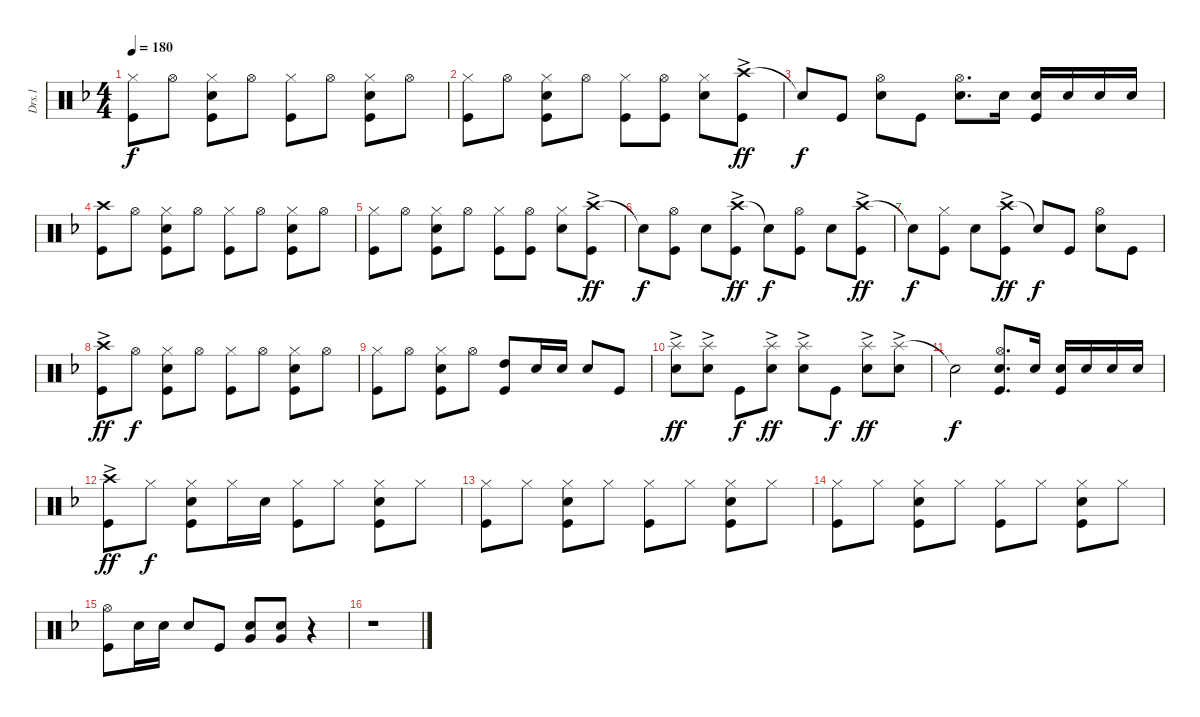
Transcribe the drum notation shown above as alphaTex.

\track ("Drs.1" "Drs.1") {instrument percussion}
\staff {score}
\articulation defaults
\ts (4 4)
\tempo 180
\clef neutral
\ks f
("Hi-Hat (closed)" "Kick (hit)").8{dy f} "Hi-Hat (open)".8 ("Hi-Hat (closed)" "Snare (hit) 2" "Kick (hit)").8 "Hi-Hat (open)".8 ("Hi-Hat (closed)" "Kick (hit)").8 "Hi-Hat (open)".8 ("Hi-Hat (closed)" "Snare (hit) 2" "Kick (hit)").8 "Hi-Hat (open)".8 |
("Hi-Hat (closed)" "Kick (hit)").8 "Hi-Hat (open)".8 ("Hi-Hat (closed)" "Snare (hit) 2" "Kick (hit)").8 "Hi-Hat (open)".8 ("Hi-Hat (closed)" "Kick (hit)").8 ("Hi-Hat (open)" "Kick (hit)").8 ("Hi-Hat (closed)" "Snare (hit) 2").8 ("Crash high (hit)"{ac} "Kick (hit)").8{dy ff} |
"Snare (hit)"{t}.8{dy f} "Kick (hit)".8 ("Hi-Hat (open)" "Snare (hit) 2").8 "Kick (hit)".8 ("Hi-Hat (open)" "Snare (hit) 2").8{d} "Snare (hit) 2".16 ("Snare (hit) 2" "Kick (hit)").16 "Snare (hit) 2".16 "Snare (hit) 2".16 "Snare (hit) 2".16 |
("Crash high (hit)" "Kick (hit)").8 "Hi-Hat (open)".8 ("Hi-Hat (closed)" "Snare (hit) 2" "Kick (hit)").8 "Hi-Hat (open)".8 ("Hi-Hat (closed)" "Kick (hit)").8 "Hi-Hat (open)".8 ("Hi-Hat (closed)" "Snare (hit) 2" "Kick (hit)").8 "Hi-Hat (open)".8 |
("Hi-Hat (closed)" "Kick (hit)").8 "Hi-Hat (open)".8 ("Hi-Hat (closed)" "Snare (hit) 2" "Kick (hit)").8 "Hi-Hat (open)".8 ("Hi-Hat (closed)" "Kick (hit)").8 ("Hi-Hat (open)" "Kick (hit)").8 ("Hi-Hat (closed)" "Snare (hit) 2").8 ("Crash high (hit)"{ac} "Kick (hit)").8{dy ff} |
"Snare (hit)"{t}.8{dy f} ("Hi-Hat (open)" "Kick (hit)").8 "Snare (hit) 2".8 ("Crash high (hit)"{ac} "Kick (hit)").8{dy ff} "Snare (hit)"{t}.8{dy f} ("Hi-Hat (open)" "Kick (hit)").8 "Snare (hit) 2".8 ("Crash high (hit)"{ac} "Kick (hit)").8{dy ff} |
"Snare (hit)"{t}.8{dy f} ("Hi-Hat (closed)" "Kick (hit)").8 "Snare (hit) 2".8 ("Crash high (hit)"{ac} "Kick (hit)").8{dy ff} "Snare (hit)"{t}.8{dy f} "Kick (hit)".8 ("Hi-Hat (open)" "Snare (hit) 2").8 "Kick (hit)".8 |
("Crash high (hit)"{ac} "Kick (hit)").8{dy ff} "Hi-Hat (open)".8{dy f} ("Hi-Hat (closed)" "Snare (hit) 2" "Kick (hit)").8 "Hi-Hat (open)".8 ("Hi-Hat (closed)" "Kick (hit)").8 "Hi-Hat (open)".8 ("Hi-Hat (closed)" "Snare (hit) 2" "Kick (hit)").8 "Hi-Hat (open)".8 |
("Hi-Hat (closed)" "Kick (hit)").8 "Hi-Hat (open)".8 ("Hi-Hat (closed)" "Snare (hit) 2" "Kick (hit)").8 "Hi-Hat (open)".8 ("High Tom (hit)" "Kick (hit)").8 "Snare (hit) 2".16 "Snare (hit) 2".16 "Snare (hit) 2".8 "Kick (hit)".8 |
("Splash (hit)"{ac} "Snare (hit) 2").8{dy ff} ("Splash (hit)"{ac} "Snare (hit) 2").8 "Kick (hit)".8{dy f} ("Splash (hit)"{ac} "Snare (hit) 2").8{dy ff} ("Splash (hit)"{ac} "Snare (hit) 2").8 "Kick (hit)".8{dy f} ("Splash (hit)"{ac} "Snare (hit) 2").8{dy ff} ("Splash (hit)"{ac} "Snare (hit) 2").8 |
"Snare (hit)"{t}.2{dy f} ("Hi-Hat (open)" "Snare (hit) 2" "Kick (hit)").8{d} "Snare (hit) 2".16 ("Snare (hit) 2" "Kick (hit)").16 "Snare (hit) 2".16 "Snare (hit) 2".16 "Snare (hit) 2".16 |
("Crash high (hit)"{ac} "Kick (hit)").8{dy ff} "Hi-Hat (closed)".8{dy f} ("Hi-Hat (closed)" "Snare (hit) 2" "Kick (hit)").8 "Hi-Hat (closed)".16 "Snare (hit) 2".16 ("Hi-Hat (closed)" "Kick (hit)").8 "Hi-Hat (closed)".8 ("Hi-Hat (closed)" "Snare (hit) 2" "Kick (hit)").8 "Hi-Hat (closed)".8 |
("Hi-Hat (closed)" "Kick (hit)").8 "Hi-Hat (closed)".8 ("Hi-Hat (closed)" "Snare (hit) 2" "Kick (hit)").8 "Hi-Hat (closed)".8 ("Hi-Hat (closed)" "Kick (hit)").8 "Hi-Hat (closed)".8 ("Hi-Hat (closed)" "Snare (hit) 2" "Kick (hit)").8 "Hi-Hat (closed)".8 |
("Hi-Hat (closed)" "Kick (hit)").8 "Hi-Hat (closed)".8 ("Hi-Hat (closed)" "Snare (hit) 2" "Kick (hit)").8 "Hi-Hat (closed)".8 ("Hi-Hat (closed)" "Kick (hit)").8 "Hi-Hat (closed)".8 ("Hi-Hat (closed)" "Snare (hit) 2" "Kick (hit)").8 "Hi-Hat (closed)".8 |
("Hi-Hat (open)" "Kick (hit)").8 "Snare (hit) 2".16 "Snare (hit) 2".16 "Snare (hit) 2".8 "Kick (hit)".8 ("Snare (hit) 2" "Very Low Tom (hit)").8 ("Snare (hit) 2" "Very Low Tom (hit)").8 r.4 |
r.1
